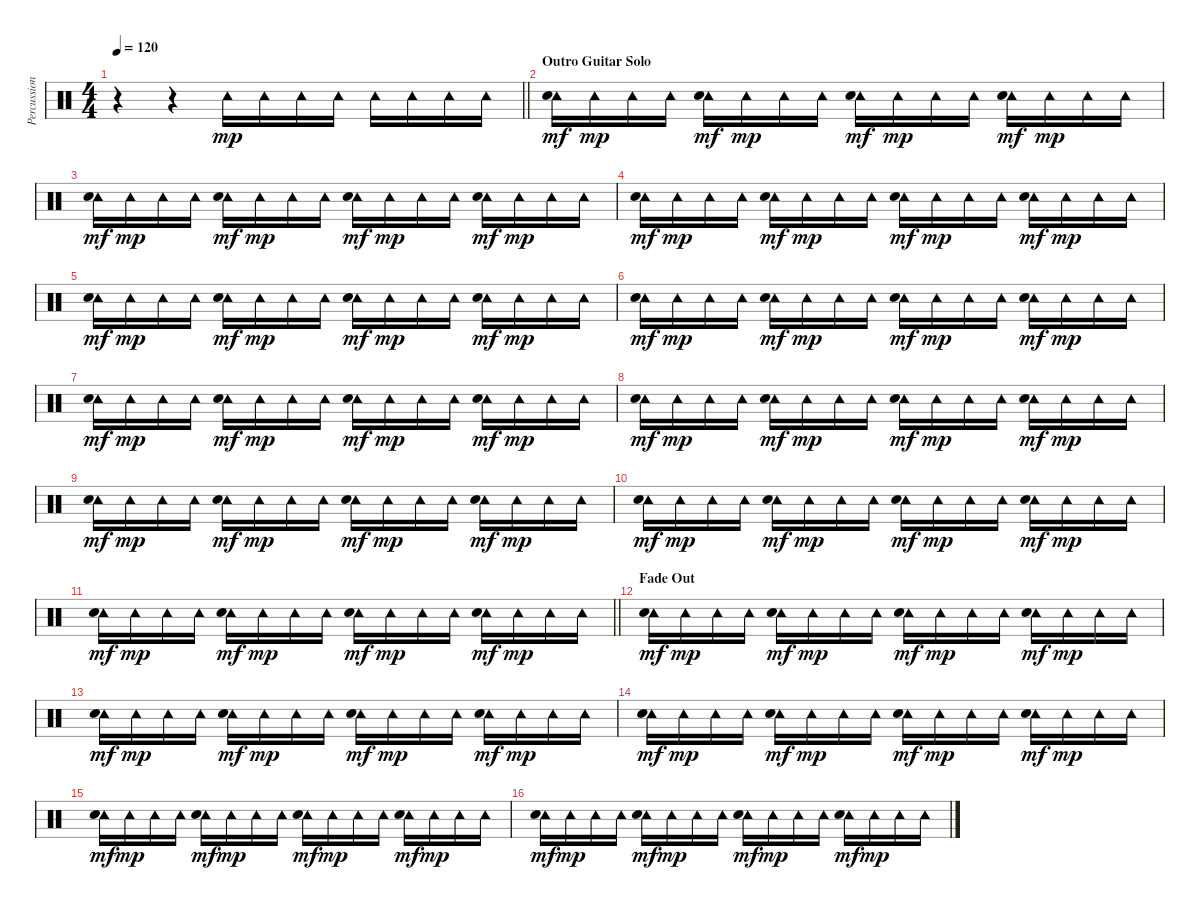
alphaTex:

\track ("Percussion" "Percussion") {instrument percussion}
\staff {score}
\articulation defaults
\ts (4 4)
\tempo 120
\clef neutral
\barLineRight lightlight
\ks c
r.4{dy mp} r.4 "Tambourine (hit)".16 "Tambourine (hit)".16 "Tambourine (hit)".16 "Tambourine (hit)".16 "Tambourine (hit)".16 "Tambourine (hit)".16 "Tambourine (hit)".16 "Tambourine (hit)".16 |
\section ("" "Outro Guitar Solo")
("Tambourine (hit)" "Hand Clap (hit)").16{dy mf} "Tambourine (hit)".16{dy mp} "Tambourine (hit)".16 "Tambourine (hit)".16 ("Tambourine (hit)" "Hand Clap (hit)").16{dy mf} "Tambourine (hit)".16{dy mp} "Tambourine (hit)".16 "Tambourine (hit)".16 ("Tambourine (hit)" "Hand Clap (hit)").16{dy mf} "Tambourine (hit)".16{dy mp} "Tambourine (hit)".16 "Tambourine (hit)".16 ("Tambourine (hit)" "Hand Clap (hit)").16{dy mf} "Tambourine (hit)".16{dy mp} "Tambourine (hit)".16 "Tambourine (hit)".16 |
("Tambourine (hit)" "Hand Clap (hit)").16{dy mf} "Tambourine (hit)".16{dy mp} "Tambourine (hit)".16 "Tambourine (hit)".16 ("Tambourine (hit)" "Hand Clap (hit)").16{dy mf} "Tambourine (hit)".16{dy mp} "Tambourine (hit)".16 "Tambourine (hit)".16 ("Tambourine (hit)" "Hand Clap (hit)").16{dy mf} "Tambourine (hit)".16{dy mp} "Tambourine (hit)".16 "Tambourine (hit)".16 ("Tambourine (hit)" "Hand Clap (hit)").16{dy mf} "Tambourine (hit)".16{dy mp} "Tambourine (hit)".16 "Tambourine (hit)".16 |
("Tambourine (hit)" "Hand Clap (hit)").16{dy mf} "Tambourine (hit)".16{dy mp} "Tambourine (hit)".16 "Tambourine (hit)".16 ("Tambourine (hit)" "Hand Clap (hit)").16{dy mf} "Tambourine (hit)".16{dy mp} "Tambourine (hit)".16 "Tambourine (hit)".16 ("Tambourine (hit)" "Hand Clap (hit)").16{dy mf} "Tambourine (hit)".16{dy mp} "Tambourine (hit)".16 "Tambourine (hit)".16 ("Tambourine (hit)" "Hand Clap (hit)").16{dy mf} "Tambourine (hit)".16{dy mp} "Tambourine (hit)".16 "Tambourine (hit)".16 |
("Tambourine (hit)" "Hand Clap (hit)").16{dy mf} "Tambourine (hit)".16{dy mp} "Tambourine (hit)".16 "Tambourine (hit)".16 ("Tambourine (hit)" "Hand Clap (hit)").16{dy mf} "Tambourine (hit)".16{dy mp} "Tambourine (hit)".16 "Tambourine (hit)".16 ("Tambourine (hit)" "Hand Clap (hit)").16{dy mf} "Tambourine (hit)".16{dy mp} "Tambourine (hit)".16 "Tambourine (hit)".16 ("Tambourine (hit)" "Hand Clap (hit)").16{dy mf} "Tambourine (hit)".16{dy mp} "Tambourine (hit)".16 "Tambourine (hit)".16 |
("Tambourine (hit)" "Hand Clap (hit)").16{dy mf} "Tambourine (hit)".16{dy mp} "Tambourine (hit)".16 "Tambourine (hit)".16 ("Tambourine (hit)" "Hand Clap (hit)").16{dy mf} "Tambourine (hit)".16{dy mp} "Tambourine (hit)".16 "Tambourine (hit)".16 ("Tambourine (hit)" "Hand Clap (hit)").16{dy mf} "Tambourine (hit)".16{dy mp} "Tambourine (hit)".16 "Tambourine (hit)".16 ("Tambourine (hit)" "Hand Clap (hit)").16{dy mf} "Tambourine (hit)".16{dy mp} "Tambourine (hit)".16 "Tambourine (hit)".16 |
("Tambourine (hit)" "Hand Clap (hit)").16{dy mf} "Tambourine (hit)".16{dy mp} "Tambourine (hit)".16 "Tambourine (hit)".16 ("Tambourine (hit)" "Hand Clap (hit)").16{dy mf} "Tambourine (hit)".16{dy mp} "Tambourine (hit)".16 "Tambourine (hit)".16 ("Tambourine (hit)" "Hand Clap (hit)").16{dy mf} "Tambourine (hit)".16{dy mp} "Tambourine (hit)".16 "Tambourine (hit)".16 ("Tambourine (hit)" "Hand Clap (hit)").16{dy mf} "Tambourine (hit)".16{dy mp} "Tambourine (hit)".16 "Tambourine (hit)".16 |
("Tambourine (hit)" "Hand Clap (hit)").16{dy mf} "Tambourine (hit)".16{dy mp} "Tambourine (hit)".16 "Tambourine (hit)".16 ("Tambourine (hit)" "Hand Clap (hit)").16{dy mf} "Tambourine (hit)".16{dy mp} "Tambourine (hit)".16 "Tambourine (hit)".16 ("Tambourine (hit)" "Hand Clap (hit)").16{dy mf} "Tambourine (hit)".16{dy mp} "Tambourine (hit)".16 "Tambourine (hit)".16 ("Tambourine (hit)" "Hand Clap (hit)").16{dy mf} "Tambourine (hit)".16{dy mp} "Tambourine (hit)".16 "Tambourine (hit)".16 |
("Tambourine (hit)" "Hand Clap (hit)").16{dy mf} "Tambourine (hit)".16{dy mp} "Tambourine (hit)".16 "Tambourine (hit)".16 ("Tambourine (hit)" "Hand Clap (hit)").16{dy mf} "Tambourine (hit)".16{dy mp} "Tambourine (hit)".16 "Tambourine (hit)".16 ("Tambourine (hit)" "Hand Clap (hit)").16{dy mf} "Tambourine (hit)".16{dy mp} "Tambourine (hit)".16 "Tambourine (hit)".16 ("Tambourine (hit)" "Hand Clap (hit)").16{dy mf} "Tambourine (hit)".16{dy mp} "Tambourine (hit)".16 "Tambourine (hit)".16 |
("Tambourine (hit)" "Hand Clap (hit)").16{dy mf} "Tambourine (hit)".16{dy mp} "Tambourine (hit)".16 "Tambourine (hit)".16 ("Tambourine (hit)" "Hand Clap (hit)").16{dy mf} "Tambourine (hit)".16{dy mp} "Tambourine (hit)".16 "Tambourine (hit)".16 ("Tambourine (hit)" "Hand Clap (hit)").16{dy mf} "Tambourine (hit)".16{dy mp} "Tambourine (hit)".16 "Tambourine (hit)".16 ("Tambourine (hit)" "Hand Clap (hit)").16{dy mf} "Tambourine (hit)".16{dy mp} "Tambourine (hit)".16 "Tambourine (hit)".16 |
\barLineRight lightlight
("Tambourine (hit)" "Hand Clap (hit)").16{dy mf} "Tambourine (hit)".16{dy mp} "Tambourine (hit)".16 "Tambourine (hit)".16 ("Tambourine (hit)" "Hand Clap (hit)").16{dy mf} "Tambourine (hit)".16{dy mp} "Tambourine (hit)".16 "Tambourine (hit)".16 ("Tambourine (hit)" "Hand Clap (hit)").16{dy mf} "Tambourine (hit)".16{dy mp} "Tambourine (hit)".16 "Tambourine (hit)".16 ("Tambourine (hit)" "Hand Clap (hit)").16{dy mf} "Tambourine (hit)".16{dy mp} "Tambourine (hit)".16 "Tambourine (hit)".16 |
\section ("" "Fade Out")
("Tambourine (hit)" "Hand Clap (hit)").16{dy mf volume 9} "Tambourine (hit)".16{dy mp} "Tambourine (hit)".16 "Tambourine (hit)".16 ("Tambourine (hit)" "Hand Clap (hit)").16{dy mf} "Tambourine (hit)".16{dy mp} "Tambourine (hit)".16 "Tambourine (hit)".16 ("Tambourine (hit)" "Hand Clap (hit)").16{dy mf} "Tambourine (hit)".16{dy mp} "Tambourine (hit)".16 "Tambourine (hit)".16 ("Tambourine (hit)" "Hand Clap (hit)").16{dy mf} "Tambourine (hit)".16{dy mp} "Tambourine (hit)".16 "Tambourine (hit)".16 |
("Tambourine (hit)" "Hand Clap (hit)").16{dy mf} "Tambourine (hit)".16{dy mp} "Tambourine (hit)".16 "Tambourine (hit)".16 ("Tambourine (hit)" "Hand Clap (hit)").16{dy mf} "Tambourine (hit)".16{dy mp} "Tambourine (hit)".16 "Tambourine (hit)".16 ("Tambourine (hit)" "Hand Clap (hit)").16{dy mf} "Tambourine (hit)".16{dy mp} "Tambourine (hit)".16 "Tambourine (hit)".16 ("Tambourine (hit)" "Hand Clap (hit)").16{dy mf} "Tambourine (hit)".16{dy mp} "Tambourine (hit)".16 "Tambourine (hit)".16 |
("Tambourine (hit)" "Hand Clap (hit)").16{dy mf volume 5} "Tambourine (hit)".16{dy mp} "Tambourine (hit)".16 "Tambourine (hit)".16 ("Tambourine (hit)" "Hand Clap (hit)").16{dy mf} "Tambourine (hit)".16{dy mp} "Tambourine (hit)".16 "Tambourine (hit)".16 ("Tambourine (hit)" "Hand Clap (hit)").16{dy mf} "Tambourine (hit)".16{dy mp} "Tambourine (hit)".16 "Tambourine (hit)".16 ("Tambourine (hit)" "Hand Clap (hit)").16{dy mf} "Tambourine (hit)".16{dy mp} "Tambourine (hit)".16 "Tambourine (hit)".16 |
("Tambourine (hit)" "Hand Clap (hit)").16{dy mf} "Tambourine (hit)".16{dy mp} "Tambourine (hit)".16 "Tambourine (hit)".16 ("Tambourine (hit)" "Hand Clap (hit)").16{dy mf} "Tambourine (hit)".16{dy mp} "Tambourine (hit)".16 "Tambourine (hit)".16 ("Tambourine (hit)" "Hand Clap (hit)").16{dy mf} "Tambourine (hit)".16{dy mp} "Tambourine (hit)".16 "Tambourine (hit)".16 ("Tambourine (hit)" "Hand Clap (hit)").16{dy mf} "Tambourine (hit)".16{dy mp} "Tambourine (hit)".16 "Tambourine (hit)".16 |
("Tambourine (hit)" "Hand Clap (hit)").16{dy mf volume 0} "Tambourine (hit)".16{dy mp} "Tambourine (hit)".16 "Tambourine (hit)".16 ("Tambourine (hit)" "Hand Clap (hit)").16{dy mf} "Tambourine (hit)".16{dy mp} "Tambourine (hit)".16 "Tambourine (hit)".16 ("Tambourine (hit)" "Hand Clap (hit)").16{dy mf} "Tambourine (hit)".16{dy mp} "Tambourine (hit)".16 "Tambourine (hit)".16 ("Tambourine (hit)" "Hand Clap (hit)").16{dy mf} "Tambourine (hit)".16{dy mp} "Tambourine (hit)".16 "Tambourine (hit)".16
